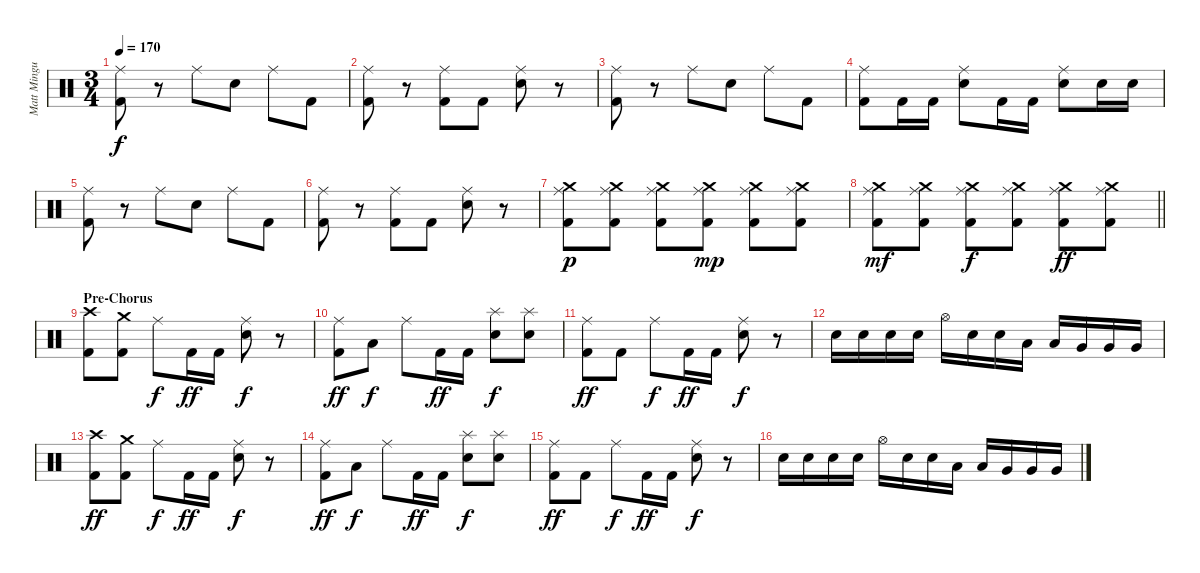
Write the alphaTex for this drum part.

\track ("Matt Mingus (Drum Kit)" "Matt Mingu") {instrument percussion}
\staff {score}
\articulation defaults
\ts (3 4)
\tempo 170
\clef neutral
\ks c
("Ride (middle)" "Kick (hit) 2").8{dy f} r.8 "Ride (middle)".8 "Electric Snare (hit)".8 "Ride (middle)".8 "Kick (hit) 2".8 |
("Ride (middle)" "Kick (hit) 2").8 r.8 ("Ride (middle)" "Kick (hit) 2").8 "Kick (hit) 2".8 ("Ride (middle)" "Electric Snare (hit)").8 r.8 |
("Ride (middle)" "Kick (hit) 2").8 r.8 "Ride (middle)".8 "Electric Snare (hit)".8 "Ride (middle)".8 "Kick (hit) 2".8 |
("Ride (middle)" "Kick (hit) 2").8 "Kick (hit) 2".16 "Kick (hit) 2".16 ("Ride (middle)" "Electric Snare (hit)").8 "Kick (hit) 2".16 "Kick (hit) 2".16 ("Ride (middle)" "Electric Snare (hit)").8 "Electric Snare (hit)".16 "Electric Snare (hit)".16 |
("Ride (middle)" "Kick (hit) 2").8 r.8 "Ride (middle)".8 "Electric Snare (hit)".8 "Ride (middle)".8 "Kick (hit) 2".8 |
("Ride (middle)" "Kick (hit) 2").8 r.8 ("Ride (middle)" "Kick (hit) 2").8 "Kick (hit) 2".8 ("Ride (middle)" "Electric Snare (hit)").8 r.8 |
("Crash medium (hit)" "Ride (middle)" "Kick (hit) 2").8{dy p} ("Crash medium (hit)" "Ride (middle)" "Kick (hit) 2").8 ("Crash medium (hit)" "Ride (middle)" "Kick (hit) 2").8 ("Crash medium (hit)" "Ride (middle)" "Kick (hit) 2").8{dy mp} ("Crash medium (hit)" "Ride (middle)" "Kick (hit) 2").8 ("Crash medium (hit)" "Ride (middle)" "Kick (hit) 2").8 |
\barLineRight lightlight
("Crash medium (hit)" "Ride (middle)" "Kick (hit) 2").8{dy mf} ("Crash medium (hit)" "Ride (middle)" "Kick (hit) 2").8 ("Crash medium (hit)" "Ride (middle)" "Kick (hit) 2").8{dy f} ("Crash medium (hit)" "Ride (middle)" "Kick (hit) 2").8 ("Crash medium (hit)" "Ride (middle)" "Kick (hit) 2").8{dy ff} ("Crash medium (hit)" "Ride (middle)" "Kick (hit) 2").8 |
\section ("" "Pre-Chorus")
("Crash high (hit)" "Kick (hit) 2").8 ("Crash medium (hit)" "Kick (hit) 2").8 "Ride (middle)".8{dy f} "Kick (hit) 2".16{dy ff} "Kick (hit) 2".16 ("Ride (middle)" "Electric Snare (hit)").8{dy f} r.8 |
("Ride (middle)" "Kick (hit) 2").8{dy ff} "Low Tom (hit)".8{dy f} "Ride (middle)".8 "Kick (hit) 2".16{dy ff} "Kick (hit) 2".16 ("Splash (hit)" "Electric Snare (hit)").8{dy f} ("Splash (hit)" "Electric Snare (hit)").8 |
("Ride (middle)" "Kick (hit) 2").8{dy ff} "Kick (hit) 2".8 "Ride (middle)".8{dy f} "Kick (hit) 2".16{dy ff} "Kick (hit) 2".16 ("Ride (middle)" "Electric Snare (hit)").8{dy f} r.8 |
"Electric Snare (hit)".16 "Electric Snare (hit)".16 "Electric Snare (hit)".16 "Electric Snare (hit)".16 "Hi-Hat (open)".16 "Electric Snare (hit)".16 "Electric Snare (hit)".16 "Low Tom (hit)".16 "Low Tom (hit)".16 "Very Low Tom (hit)".16 "Very Low Tom (hit)".16 "Very Low Tom (hit)".16 |
("Crash high (hit)" "Kick (hit) 2").8{dy ff} ("Crash medium (hit)" "Kick (hit) 2").8 "Ride (middle)".8{dy f} "Kick (hit) 2".16{dy ff} "Kick (hit) 2".16 ("Ride (middle)" "Electric Snare (hit)").8{dy f} r.8 |
("Ride (middle)" "Kick (hit) 2").8{dy ff} "Low Tom (hit)".8{dy f} "Ride (middle)".8 "Kick (hit) 2".16{dy ff} "Kick (hit) 2".16 ("Splash (hit)" "Electric Snare (hit)").8{dy f} ("Splash (hit)" "Electric Snare (hit)").8 |
("Ride (middle)" "Kick (hit) 2").8{dy ff} "Kick (hit) 2".8 "Ride (middle)".8{dy f} "Kick (hit) 2".16{dy ff} "Kick (hit) 2".16 ("Ride (middle)" "Electric Snare (hit)").8{dy f} r.8 |
"Electric Snare (hit)".16 "Electric Snare (hit)".16 "Electric Snare (hit)".16 "Electric Snare (hit)".16 "Hi-Hat (open)".16 "Electric Snare (hit)".16 "Electric Snare (hit)".16 "Low Tom (hit)".16 "Low Tom (hit)".16 "Very Low Tom (hit)".16 "Very Low Tom (hit)".16 "Very Low Tom (hit)".16
